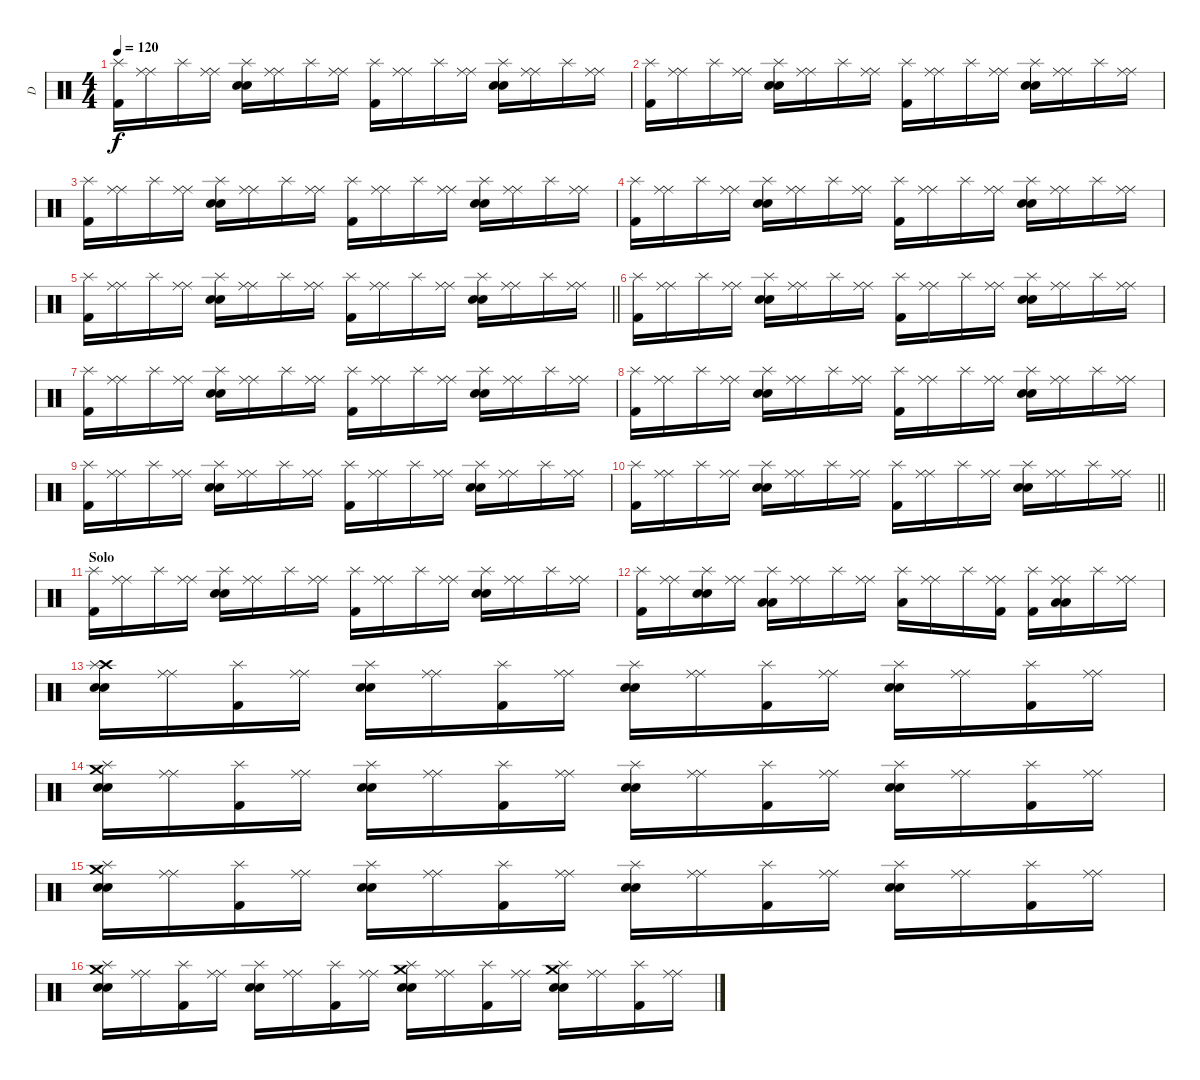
\track ("D" "D") {instrument percussion}
\staff {score}
\articulation defaults
\ts (4 4)
\tempo 120
\clef neutral
\ks c
("Kick (hit) 2" "Splash (hit)").16{dy f} ("Ride (middle)" "Ride (middle)").16 "Splash (hit)".16 ("Ride (middle)" "Ride (middle)").16 ("Electric Snare (hit)" "Electric Snare (hit)" "Splash (hit)").16 ("Ride (middle)" "Ride (middle)").16 "Splash (hit)".16 ("Ride (middle)" "Ride (middle)").16 ("Kick (hit) 2" "Splash (hit)").16 ("Ride (middle)" "Ride (middle)").16 "Splash (hit)".16 ("Ride (middle)" "Ride (middle)").16 ("Electric Snare (hit)" "Electric Snare (hit)" "Splash (hit)").16 ("Ride (middle)" "Ride (middle)").16 "Splash (hit)".16 ("Ride (middle)" "Ride (middle)").16 |
("Kick (hit) 2" "Splash (hit)").16 ("Ride (middle)" "Ride (middle)").16 "Splash (hit)".16 ("Ride (middle)" "Ride (middle)").16 ("Electric Snare (hit)" "Electric Snare (hit)" "Splash (hit)").16 ("Ride (middle)" "Ride (middle)").16 "Splash (hit)".16 ("Ride (middle)" "Ride (middle)").16 ("Kick (hit) 2" "Splash (hit)").16 ("Ride (middle)" "Ride (middle)").16 "Splash (hit)".16 ("Ride (middle)" "Ride (middle)").16 ("Electric Snare (hit)" "Electric Snare (hit)" "Splash (hit)").16 ("Ride (middle)" "Ride (middle)").16 "Splash (hit)".16 ("Ride (middle)" "Ride (middle)").16 |
("Kick (hit) 2" "Splash (hit)").16 ("Ride (middle)" "Ride (middle)").16 "Splash (hit)".16 ("Ride (middle)" "Ride (middle)").16 ("Electric Snare (hit)" "Electric Snare (hit)" "Splash (hit)").16 ("Ride (middle)" "Ride (middle)").16 "Splash (hit)".16 ("Ride (middle)" "Ride (middle)").16 ("Kick (hit) 2" "Splash (hit)").16 ("Ride (middle)" "Ride (middle)").16 "Splash (hit)".16 ("Ride (middle)" "Ride (middle)").16 ("Electric Snare (hit)" "Electric Snare (hit)" "Splash (hit)").16 ("Ride (middle)" "Ride (middle)").16 "Splash (hit)".16 ("Ride (middle)" "Ride (middle)").16 |
("Kick (hit) 2" "Splash (hit)").16 ("Ride (middle)" "Ride (middle)").16 "Splash (hit)".16 ("Ride (middle)" "Ride (middle)").16 ("Electric Snare (hit)" "Electric Snare (hit)" "Splash (hit)").16 ("Ride (middle)" "Ride (middle)").16 "Splash (hit)".16 ("Ride (middle)" "Ride (middle)").16 ("Kick (hit) 2" "Splash (hit)").16 ("Ride (middle)" "Ride (middle)").16 "Splash (hit)".16 ("Ride (middle)" "Ride (middle)").16 ("Electric Snare (hit)" "Electric Snare (hit)" "Splash (hit)").16 ("Ride (middle)" "Ride (middle)").16 "Splash (hit)".16 ("Ride (middle)" "Ride (middle)").16 |
\barLineRight lightlight
("Kick (hit) 2" "Splash (hit)").16 ("Ride (middle)" "Ride (middle)").16 "Splash (hit)".16 ("Ride (middle)" "Ride (middle)").16 ("Electric Snare (hit)" "Electric Snare (hit)" "Splash (hit)").16 ("Ride (middle)" "Ride (middle)").16 "Splash (hit)".16 ("Ride (middle)" "Ride (middle)").16 ("Kick (hit) 2" "Splash (hit)").16 ("Ride (middle)" "Ride (middle)").16 "Splash (hit)".16 ("Ride (middle)" "Ride (middle)").16 ("Electric Snare (hit)" "Electric Snare (hit)" "Splash (hit)").16 ("Ride (middle)" "Ride (middle)").16 "Splash (hit)".16 ("Ride (middle)" "Ride (middle)").16 |
\section ("" "")
("Kick (hit) 2" "Splash (hit)").16 ("Ride (middle)" "Ride (middle)").16 "Splash (hit)".16 ("Ride (middle)" "Ride (middle)").16 ("Electric Snare (hit)" "Electric Snare (hit)" "Splash (hit)").16 ("Ride (middle)" "Ride (middle)").16 "Splash (hit)".16 ("Ride (middle)" "Ride (middle)").16 ("Kick (hit) 2" "Splash (hit)").16 ("Ride (middle)" "Ride (middle)").16 "Splash (hit)".16 ("Ride (middle)" "Ride (middle)").16 ("Electric Snare (hit)" "Electric Snare (hit)" "Splash (hit)").16 ("Ride (middle)" "Ride (middle)").16 "Splash (hit)".16 ("Ride (middle)" "Ride (middle)").16 |
("Kick (hit) 2" "Splash (hit)").16 ("Ride (middle)" "Ride (middle)").16 "Splash (hit)".16 ("Ride (middle)" "Ride (middle)").16 ("Electric Snare (hit)" "Electric Snare (hit)" "Splash (hit)").16 ("Ride (middle)" "Ride (middle)").16 "Splash (hit)".16 ("Ride (middle)" "Ride (middle)").16 ("Kick (hit) 2" "Splash (hit)").16 ("Ride (middle)" "Ride (middle)").16 "Splash (hit)".16 ("Ride (middle)" "Ride (middle)").16 ("Electric Snare (hit)" "Electric Snare (hit)" "Splash (hit)").16 ("Ride (middle)" "Ride (middle)").16 "Splash (hit)".16 ("Ride (middle)" "Ride (middle)").16 |
("Kick (hit) 2" "Splash (hit)").16 ("Ride (middle)" "Ride (middle)").16 "Splash (hit)".16 ("Ride (middle)" "Ride (middle)").16 ("Electric Snare (hit)" "Electric Snare (hit)" "Splash (hit)").16 ("Ride (middle)" "Ride (middle)").16 "Splash (hit)".16 ("Ride (middle)" "Ride (middle)").16 ("Kick (hit) 2" "Splash (hit)").16 ("Ride (middle)" "Ride (middle)").16 "Splash (hit)".16 ("Ride (middle)" "Ride (middle)").16 ("Electric Snare (hit)" "Electric Snare (hit)" "Splash (hit)").16 ("Ride (middle)" "Ride (middle)").16 "Splash (hit)".16 ("Ride (middle)" "Ride (middle)").16 |
("Kick (hit) 2" "Splash (hit)").16 ("Ride (middle)" "Ride (middle)").16 "Splash (hit)".16 ("Ride (middle)" "Ride (middle)").16 ("Electric Snare (hit)" "Electric Snare (hit)" "Splash (hit)").16 ("Ride (middle)" "Ride (middle)").16 "Splash (hit)".16 ("Ride (middle)" "Ride (middle)").16 ("Kick (hit) 2" "Splash (hit)").16 ("Ride (middle)" "Ride (middle)").16 "Splash (hit)".16 ("Ride (middle)" "Ride (middle)").16 ("Electric Snare (hit)" "Electric Snare (hit)" "Splash (hit)").16 ("Ride (middle)" "Ride (middle)").16 "Splash (hit)".16 ("Ride (middle)" "Ride (middle)").16 |
\barLineRight lightlight
("Kick (hit) 2" "Splash (hit)").16 ("Ride (middle)" "Ride (middle)").16 "Splash (hit)".16 ("Ride (middle)" "Ride (middle)").16 ("Electric Snare (hit)" "Electric Snare (hit)" "Splash (hit)").16 ("Ride (middle)" "Ride (middle)").16 "Splash (hit)".16 ("Ride (middle)" "Ride (middle)").16 ("Kick (hit) 2" "Splash (hit)").16 ("Ride (middle)" "Ride (middle)").16 "Splash (hit)".16 ("Ride (middle)" "Ride (middle)").16 ("Electric Snare (hit)" "Electric Snare (hit)" "Splash (hit)").16 ("Ride (middle)" "Ride (middle)").16 "Splash (hit)".16 ("Ride (middle)" "Ride (middle)").16 |
\section ("" "Solo")
("Kick (hit) 2" "Splash (hit)").16 ("Ride (middle)" "Ride (middle)").16 "Splash (hit)".16 ("Ride (middle)" "Ride (middle)").16 ("Electric Snare (hit)" "Electric Snare (hit)" "Splash (hit)").16 ("Ride (middle)" "Ride (middle)").16 "Splash (hit)".16 ("Ride (middle)" "Ride (middle)").16 ("Kick (hit) 2" "Splash (hit)").16 ("Ride (middle)" "Ride (middle)").16 "Splash (hit)".16 ("Ride (middle)" "Ride (middle)").16 ("Electric Snare (hit)" "Electric Snare (hit)" "Splash (hit)").16 ("Ride (middle)" "Ride (middle)").16 "Splash (hit)".16 ("Ride (middle)" "Ride (middle)").16 |
("Kick (hit) 2" "Splash (hit)").16 ("Ride (middle)" "Ride (middle)").16 ("Electric Snare (hit)" "Electric Snare (hit)" "Splash (hit)").16 ("Ride (middle)" "Ride (middle)").16 ("Low Tom (hit)" "Low Tom (hit)" "Splash (hit)").16 ("Ride (middle)" "Ride (middle)").16 "Splash (hit)".16 ("Ride (middle)" "Ride (middle)").16 ("Low Tom (hit)" "Splash (hit)").16 ("Ride (middle)" "Ride (middle)").16 "Splash (hit)".16 ("Kick (hit) 2" "Ride (middle)" "Ride (middle)").16 ("Kick (hit) 2" "Splash (hit)").16 ("Low Tom (hit)" "Low Tom (hit)" "Ride (middle)" "Ride (middle)").16 "Splash (hit)".16 ("Ride (middle)" "Ride (middle)").16 |
("Crash high (hit)" "Electric Snare (hit)" "Electric Snare (hit)" "Splash (hit)").16 ("Ride (middle)" "Ride (middle)").16 ("Kick (hit) 2" "Splash (hit)").16 ("Ride (middle)" "Ride (middle)").16 ("Electric Snare (hit)" "Electric Snare (hit)" "Splash (hit)").16 ("Ride (middle)" "Ride (middle)").16 ("Kick (hit) 2" "Splash (hit)").16 ("Ride (middle)" "Ride (middle)").16 ("Electric Snare (hit)" "Electric Snare (hit)" "Splash (hit)").16 ("Ride (middle)" "Ride (middle)").16 ("Kick (hit) 2" "Splash (hit)").16 ("Ride (middle)" "Ride (middle)").16 ("Electric Snare (hit)" "Electric Snare (hit)" "Splash (hit)").16 ("Ride (middle)" "Ride (middle)").16 ("Kick (hit) 2" "Splash (hit)").16 ("Ride (middle)" "Ride (middle)").16 |
("Crash medium (hit)" "Electric Snare (hit)" "Electric Snare (hit)" "Splash (hit)").16 ("Ride (middle)" "Ride (middle)").16 ("Kick (hit) 2" "Splash (hit)").16 ("Ride (middle)" "Ride (middle)").16 ("Electric Snare (hit)" "Electric Snare (hit)" "Splash (hit)").16 ("Ride (middle)" "Ride (middle)").16 ("Kick (hit) 2" "Splash (hit)").16 ("Ride (middle)" "Ride (middle)").16 ("Electric Snare (hit)" "Electric Snare (hit)" "Splash (hit)").16 ("Ride (middle)" "Ride (middle)").16 ("Kick (hit) 2" "Splash (hit)").16 ("Ride (middle)" "Ride (middle)").16 ("Electric Snare (hit)" "Electric Snare (hit)" "Splash (hit)").16 ("Ride (middle)" "Ride (middle)").16 ("Kick (hit) 2" "Splash (hit)").16 ("Ride (middle)" "Ride (middle)").16 |
("Crash medium (hit)" "Electric Snare (hit)" "Electric Snare (hit)" "Splash (hit)").16 ("Ride (middle)" "Ride (middle)").16 ("Kick (hit) 2" "Splash (hit)").16 ("Ride (middle)" "Ride (middle)").16 ("Electric Snare (hit)" "Electric Snare (hit)" "Splash (hit)").16 ("Ride (middle)" "Ride (middle)").16 ("Kick (hit) 2" "Splash (hit)").16 ("Ride (middle)" "Ride (middle)").16 ("Electric Snare (hit)" "Electric Snare (hit)" "Splash (hit)").16 ("Ride (middle)" "Ride (middle)").16 ("Kick (hit) 2" "Splash (hit)").16 ("Ride (middle)" "Ride (middle)").16 ("Electric Snare (hit)" "Electric Snare (hit)" "Splash (hit)").16 ("Ride (middle)" "Ride (middle)").16 ("Kick (hit) 2" "Splash (hit)").16 ("Ride (middle)" "Ride (middle)").16 |
("Crash medium (hit)" "Electric Snare (hit)" "Electric Snare (hit)" "Splash (hit)").16 ("Ride (middle)" "Ride (middle)").16 ("Kick (hit) 2" "Splash (hit)").16 ("Ride (middle)" "Ride (middle)").16 ("Electric Snare (hit)" "Electric Snare (hit)" "Splash (hit)").16 ("Ride (middle)" "Ride (middle)").16 ("Kick (hit) 2" "Splash (hit)").16 ("Ride (middle)" "Ride (middle)").16 ("Crash medium (hit)" "Electric Snare (hit)" "Electric Snare (hit)" "Splash (hit)").16 ("Ride (middle)" "Ride (middle)").16 ("Kick (hit) 2" "Splash (hit)").16 ("Ride (middle)" "Ride (middle)").16 ("Crash medium (hit)" "Electric Snare (hit)" "Electric Snare (hit)" "Splash (hit)").16 ("Ride (middle)" "Ride (middle)").16 ("Kick (hit) 2" "Splash (hit)").16 ("Ride (middle)" "Ride (middle)").16
